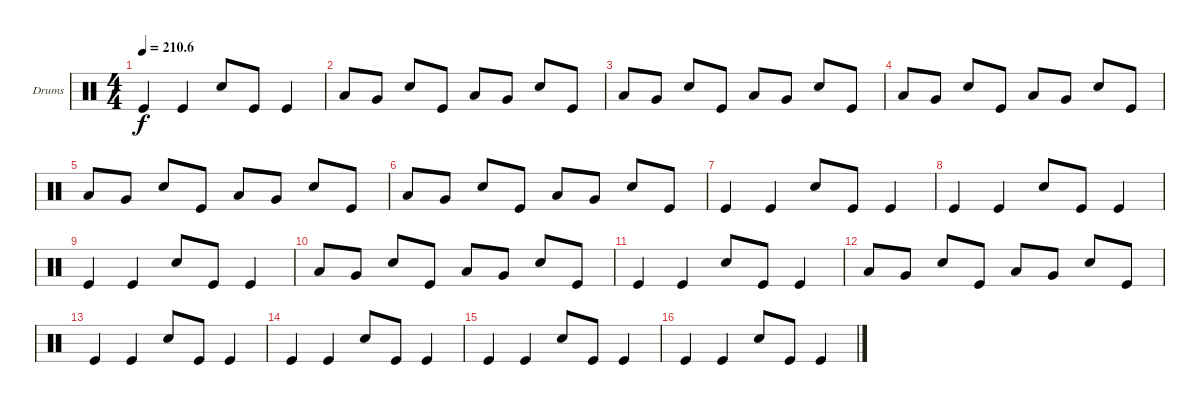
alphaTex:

\defaultSystemsLayout 4
\bracketExtendMode groupsimilarinstruments
\firstSystemTrackNameOrientation horizontal
\otherSystemsTrackNameOrientation horizontal
\track ("Drumkit" "Drums") {instrument percussion}
\staff {score}
\articulation defaults
\ts (4 4)
\tempo
210.6
\accidentals auto
\clef neutral
\ottava regular
\simile none
\ks c "Kick (hit)".4{dy f} "Kick (hit)".4 "Snare (hit) 2".8 "Kick (hit)".8 "Kick (hit)".4
|
"Low Tom (hit)".8 "Very Low Tom (hit)".8 "Snare (hit) 2".8 "Kick (hit)".8 "Low Tom (hit)".8 "Very Low Tom (hit)".8 "Snare (hit) 2".8 "Kick (hit)".8 |
"Low Tom (hit)".8 "Very Low Tom (hit)".8 "Snare (hit) 2".8 "Kick (hit)".8 "Low Tom (hit)".8 "Very Low Tom (hit)".8 "Snare (hit) 2".8 "Kick (hit)".8 |
"Low Tom (hit)".8 "Very Low Tom (hit)".8 "Snare (hit) 2".8 "Kick (hit)".8 "Low Tom (hit)".8 "Very Low Tom (hit)".8 "Snare (hit) 2".8 "Kick (hit)".8 |
"Low Tom (hit)".8 "Very Low Tom (hit)".8 "Snare (hit) 2".8 "Kick (hit)".8 "Low Tom (hit)".8 "Very Low Tom (hit)".8 "Snare (hit) 2".8 "Kick (hit)".8 |
"Low Tom (hit)".8 "Very Low Tom (hit)".8 "Snare (hit) 2".8 "Kick (hit)".8 "Low Tom (hit)".8 "Very Low Tom (hit)".8 "Snare (hit) 2".8 "Kick (hit)".8 |
"Kick (hit)".4 "Kick (hit)".4 "Snare (hit) 2".8 "Kick (hit)".8 "Kick (hit)".4 |
"Kick (hit)".4 "Kick (hit)".4 "Snare (hit) 2".8 "Kick (hit)".8 "Kick (hit)".4 |
"Kick (hit)".4 "Kick (hit)".4 "Snare (hit) 2".8 "Kick (hit)".8 "Kick (hit)".4 |
"Low Tom (hit)".8 "Very Low Tom (hit)".8 "Snare (hit) 2".8 "Kick (hit)".8 "Low Tom (hit)".8 "Very Low Tom (hit)".8 "Snare (hit) 2".8 "Kick (hit)".8 |
"Kick (hit)".4 "Kick (hit)".4 "Snare (hit) 2".8 "Kick (hit)".8 "Kick (hit)".4 |
"Low Tom (hit)".8 "Very Low Tom (hit)".8 "Snare (hit) 2".8 "Kick (hit)".8 "Low Tom (hit)".8 "Very Low Tom (hit)".8 "Snare (hit) 2".8 "Kick (hit)".8 |
"Kick (hit)".4 "Kick (hit)".4 "Snare (hit) 2".8 "Kick (hit)".8 "Kick (hit)".4 |
"Kick (hit)".4 "Kick (hit)".4 "Snare (hit) 2".8 "Kick (hit)".8 "Kick (hit)".4 |
"Kick (hit)".4 "Kick (hit)".4 "Snare (hit) 2".8 "Kick (hit)".8 "Kick (hit)".4 |
"Kick (hit)".4 "Kick (hit)".4 "Snare (hit) 2".8 "Kick (hit)".8 "Kick (hit)".4
